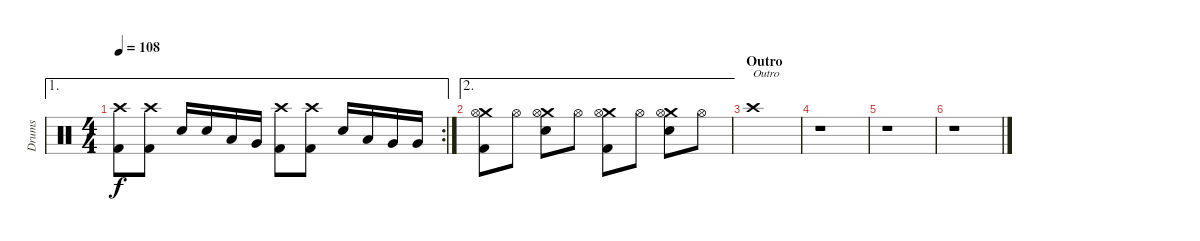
\track ("Drums" "Drums") {instrument percussion}
\staff {score}
\articulation defaults
\ae 1
\rc 2
\ts (4 4)
\tempo 108
\clef neutral
\ks c
("Crash high (hit)" "Kick (hit) 2").8{dy f} ("Crash high (hit)" "Kick (hit) 2").8 "Snare (hit) 2".16 "Snare (hit) 2".16 "Low Tom (hit)".16 "Very Low Tom (hit)".16 ("Crash high (hit)" "Kick (hit) 2").8 ("Crash high (hit)" "Kick (hit) 2").8 "Snare (hit) 2".16 "Low Tom (hit)".16 "Very Low Tom (hit)".16 "Very Low Tom (hit)".16 |
\ae 2
("Crash medium (hit)" "Hi-Hat (open)" "Kick (hit) 2").8 "Hi-Hat (open)".8 ("Crash medium (hit)" "Hi-Hat (open)" "Snare (hit) 2").8 "Hi-Hat (open)".8 ("Crash medium (hit)" "Hi-Hat (open)" "Kick (hit) 2").8 "Hi-Hat (open)".8 ("Crash medium (hit)" "Hi-Hat (open)" "Snare (hit) 2").8 "Hi-Hat (open)".8 |
\section ("" "Outro")
"Crash high (hit)".1{txt "Outro"} |
r.1 |
r.1 |
r.1
